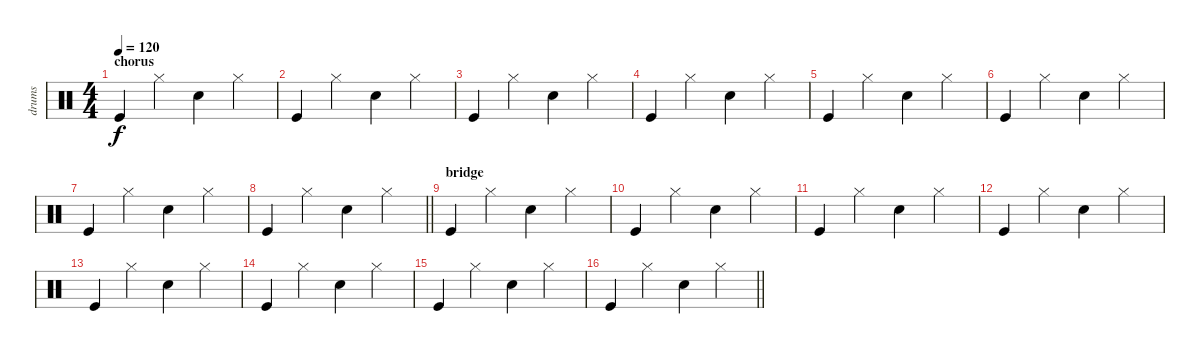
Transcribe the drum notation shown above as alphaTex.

\track ("drums" "drums") {instrument percussion}
\staff {score}
\articulation defaults
\ts (4 4)
\section ("" "chorus")
\tempo 120
\clef neutral
\ks c "Kick (hit)".4{dy f} "Hi-Hat (closed)".4 "Snare (hit) 2".4 "Hi-Hat (closed)".4
|
"Kick (hit)".4 "Hi-Hat (closed)".4 "Snare (hit) 2".4 "Hi-Hat (closed)".4 |
"Kick (hit)".4 "Hi-Hat (closed)".4 "Snare (hit) 2".4 "Hi-Hat (closed)".4 |
"Kick (hit)".4 "Hi-Hat (closed)".4 "Snare (hit) 2".4 "Hi-Hat (closed)".4 |
"Kick (hit)".4 "Hi-Hat (closed)".4 "Snare (hit) 2".4 "Hi-Hat (closed)".4 |
"Kick (hit)".4 "Hi-Hat (closed)".4 "Snare (hit) 2".4 "Hi-Hat (closed)".4 |
"Kick (hit)".4 "Hi-Hat (closed)".4 "Snare (hit) 2".4 "Hi-Hat (closed)".4 |
\barLineRight lightlight "Kick (hit)".4 "Hi-Hat (closed)".4 "Snare (hit) 2".4 "Hi-Hat (closed)".4
|
\section ("" "bridge")
"Kick (hit)".4 "Hi-Hat (closed)".4 "Snare (hit) 2".4 "Hi-Hat (closed)".4 |
"Kick (hit)".4 "Hi-Hat (closed)".4 "Snare (hit) 2".4 "Hi-Hat (closed)".4 |
"Kick (hit)".4 "Hi-Hat (closed)".4 "Snare (hit) 2".4 "Hi-Hat (closed)".4 |
"Kick (hit)".4 "Hi-Hat (closed)".4 "Snare (hit) 2".4 "Hi-Hat (closed)".4 |
"Kick (hit)".4 "Hi-Hat (closed)".4 "Snare (hit) 2".4 "Hi-Hat (closed)".4 |
"Kick (hit)".4 "Hi-Hat (closed)".4 "Snare (hit) 2".4 "Hi-Hat (closed)".4 |
"Kick (hit)".4 "Hi-Hat (closed)".4 "Snare (hit) 2".4 "Hi-Hat (closed)".4 |
\barLineRight lightlight "Kick (hit)".4 "Hi-Hat (closed)".4 "Snare (hit) 2".4 "Hi-Hat (closed)".4
